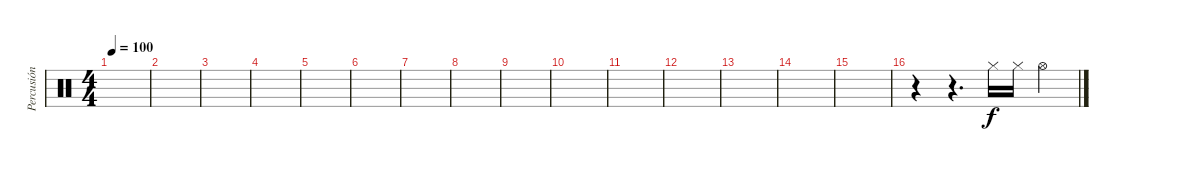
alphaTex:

\track ("Percusión" "Percusión") {instrument percussion}
\staff {score}
\articulation defaults
\ts (4 4)
\tempo 100
\clef neutral
\ks c
|
|
|
|
|
|
|
|
|
|
|
|
|
|
|
r.4 r.4{d} "Hi-Hat (closed)".16 "Hi-Hat (closed)".16 "Hi-Hat (open)".4
